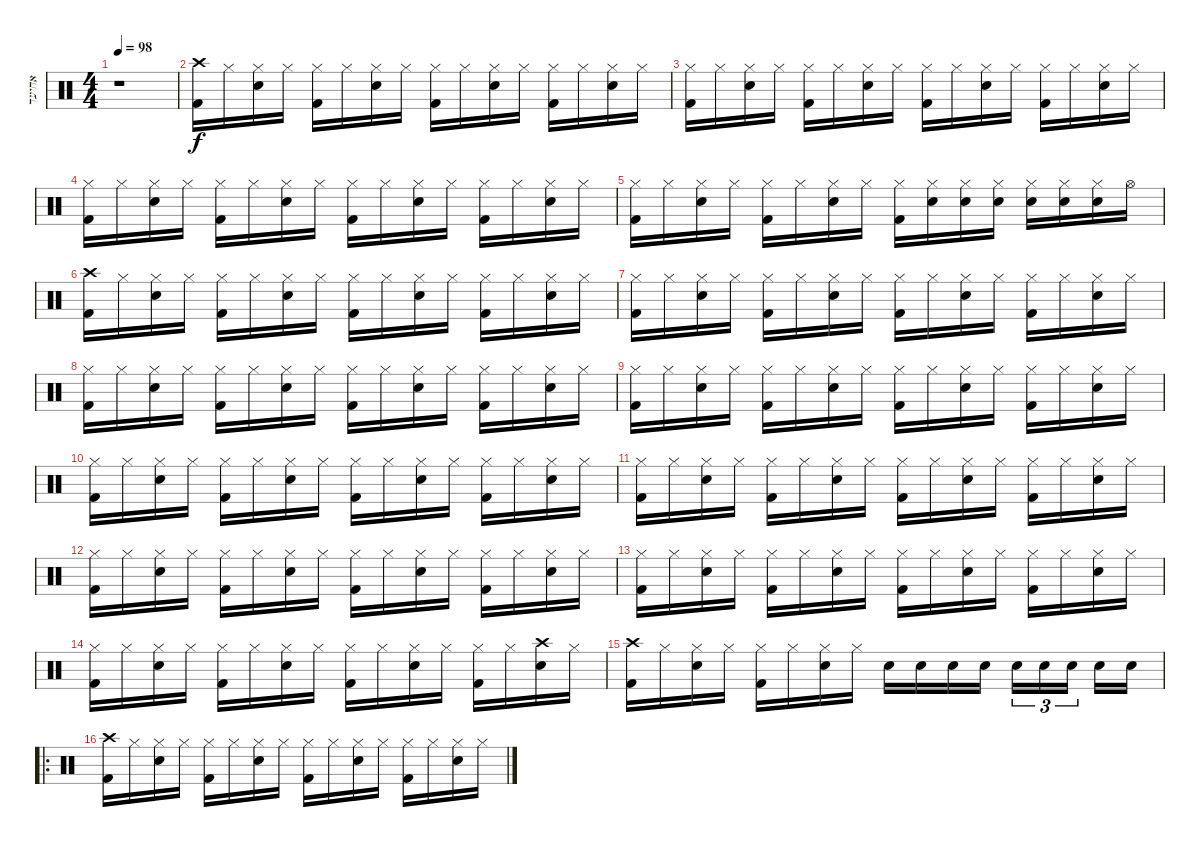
\track ("אחיעד" "אחיעד") {instrument percussion}
\staff {score}
\articulation defaults
\ts (4 4)
\tempo 98
\clef neutral
\ks c
r.1{dy f} |
("Crash high (hit)" "Kick (hit) 2").16 "Hi-Hat (closed)".16 ("Hi-Hat (closed)" "Snare (hit) 2").16 "Hi-Hat (closed)".16 ("Hi-Hat (closed)" "Kick (hit) 2").16 "Hi-Hat (closed)".16 ("Hi-Hat (closed)" "Snare (hit) 2").16 "Hi-Hat (closed)".16 ("Hi-Hat (closed)" "Kick (hit) 2").16 "Hi-Hat (closed)".16 ("Hi-Hat (closed)" "Snare (hit) 2").16 "Hi-Hat (closed)".16 ("Hi-Hat (closed)" "Kick (hit) 2").16 "Hi-Hat (closed)".16 ("Hi-Hat (closed)" "Snare (hit) 2").16 "Hi-Hat (closed)".16 |
("Hi-Hat (closed)" "Kick (hit) 2").16 "Hi-Hat (closed)".16 ("Hi-Hat (closed)" "Snare (hit) 2").16 "Hi-Hat (closed)".16 ("Hi-Hat (closed)" "Kick (hit) 2").16 "Hi-Hat (closed)".16 ("Hi-Hat (closed)" "Snare (hit) 2").16 "Hi-Hat (closed)".16 ("Hi-Hat (closed)" "Kick (hit) 2").16 "Hi-Hat (closed)".16 ("Hi-Hat (closed)" "Snare (hit) 2").16 "Hi-Hat (closed)".16 ("Hi-Hat (closed)" "Kick (hit) 2").16 "Hi-Hat (closed)".16 ("Hi-Hat (closed)" "Snare (hit) 2").16 "Hi-Hat (closed)".16 |
("Hi-Hat (closed)" "Kick (hit) 2").16 "Hi-Hat (closed)".16 ("Hi-Hat (closed)" "Snare (hit) 2").16 "Hi-Hat (closed)".16 ("Hi-Hat (closed)" "Kick (hit) 2").16 "Hi-Hat (closed)".16 ("Hi-Hat (closed)" "Snare (hit) 2").16 "Hi-Hat (closed)".16 ("Hi-Hat (closed)" "Kick (hit) 2").16 "Hi-Hat (closed)".16 ("Hi-Hat (closed)" "Snare (hit) 2").16 "Hi-Hat (closed)".16 ("Hi-Hat (closed)" "Kick (hit) 2").16 "Hi-Hat (closed)".16 ("Hi-Hat (closed)" "Snare (hit) 2").16 "Hi-Hat (closed)".16 |
("Hi-Hat (closed)" "Kick (hit) 2").16 "Hi-Hat (closed)".16 ("Hi-Hat (closed)" "Snare (hit) 2").16 "Hi-Hat (closed)".16 ("Hi-Hat (closed)" "Kick (hit) 2").16 "Hi-Hat (closed)".16 ("Hi-Hat (closed)" "Snare (hit) 2").16 "Hi-Hat (closed)".16 ("Hi-Hat (closed)" "Kick (hit) 2").16 ("Hi-Hat (closed)" "Snare (hit) 2").16 ("Hi-Hat (closed)" "Snare (hit) 2").16 ("Hi-Hat (closed)" "Snare (hit) 2").16 ("Hi-Hat (closed)" "Snare (hit) 2").16 ("Hi-Hat (closed)" "Snare (hit) 2").16 ("Hi-Hat (closed)" "Snare (hit) 2").16 "Hi-Hat (open)".16 |
("Crash high (hit)" "Kick (hit) 2").16 "Hi-Hat (closed)".16 ("Hi-Hat (closed)" "Snare (hit) 2").16 "Hi-Hat (closed)".16 ("Hi-Hat (closed)" "Kick (hit) 2").16 "Hi-Hat (closed)".16 ("Hi-Hat (closed)" "Snare (hit) 2").16 "Hi-Hat (closed)".16 ("Hi-Hat (closed)" "Kick (hit) 2").16 "Hi-Hat (closed)".16 ("Hi-Hat (closed)" "Snare (hit) 2").16 "Hi-Hat (closed)".16 ("Hi-Hat (closed)" "Kick (hit) 2").16 "Hi-Hat (closed)".16 ("Hi-Hat (closed)" "Snare (hit) 2").16 "Hi-Hat (closed)".16 |
("Hi-Hat (closed)" "Kick (hit) 2").16 "Hi-Hat (closed)".16 ("Hi-Hat (closed)" "Snare (hit) 2").16 "Hi-Hat (closed)".16 ("Hi-Hat (closed)" "Kick (hit) 2").16 "Hi-Hat (closed)".16 ("Hi-Hat (closed)" "Snare (hit) 2").16 "Hi-Hat (closed)".16 ("Hi-Hat (closed)" "Kick (hit) 2").16 "Hi-Hat (closed)".16 ("Hi-Hat (closed)" "Snare (hit) 2").16 "Hi-Hat (closed)".16 ("Hi-Hat (closed)" "Kick (hit) 2").16 "Hi-Hat (closed)".16 ("Hi-Hat (closed)" "Snare (hit) 2").16 "Hi-Hat (closed)".16 |
("Hi-Hat (closed)" "Kick (hit) 2").16 "Hi-Hat (closed)".16 ("Hi-Hat (closed)" "Snare (hit) 2").16 "Hi-Hat (closed)".16 ("Hi-Hat (closed)" "Kick (hit) 2").16 "Hi-Hat (closed)".16 ("Hi-Hat (closed)" "Snare (hit) 2").16 "Hi-Hat (closed)".16 ("Hi-Hat (closed)" "Kick (hit) 2").16 "Hi-Hat (closed)".16 ("Hi-Hat (closed)" "Snare (hit) 2").16 "Hi-Hat (closed)".16 ("Hi-Hat (closed)" "Kick (hit) 2").16 "Hi-Hat (closed)".16 ("Hi-Hat (closed)" "Snare (hit) 2").16 "Hi-Hat (closed)".16 |
("Hi-Hat (closed)" "Kick (hit) 2").16 "Hi-Hat (closed)".16 ("Hi-Hat (closed)" "Snare (hit) 2").16 "Hi-Hat (closed)".16 ("Hi-Hat (closed)" "Kick (hit) 2").16 "Hi-Hat (closed)".16 ("Hi-Hat (closed)" "Snare (hit) 2").16 "Hi-Hat (closed)".16 ("Hi-Hat (closed)" "Kick (hit) 2").16 "Hi-Hat (closed)".16 ("Hi-Hat (closed)" "Snare (hit) 2").16 "Hi-Hat (closed)".16 ("Hi-Hat (closed)" "Kick (hit) 2").16 "Hi-Hat (closed)".16 ("Hi-Hat (closed)" "Snare (hit) 2").16 "Hi-Hat (closed)".16 |
("Hi-Hat (closed)" "Kick (hit) 2").16 "Hi-Hat (closed)".16 ("Hi-Hat (closed)" "Snare (hit) 2").16 "Hi-Hat (closed)".16 ("Hi-Hat (closed)" "Kick (hit) 2").16 "Hi-Hat (closed)".16 ("Hi-Hat (closed)" "Snare (hit) 2").16 "Hi-Hat (closed)".16 ("Hi-Hat (closed)" "Kick (hit) 2").16 "Hi-Hat (closed)".16 ("Hi-Hat (closed)" "Snare (hit) 2").16 "Hi-Hat (closed)".16 ("Hi-Hat (closed)" "Kick (hit) 2").16 "Hi-Hat (closed)".16 ("Hi-Hat (closed)" "Snare (hit) 2").16 "Hi-Hat (closed)".16 |
("Hi-Hat (closed)" "Kick (hit) 2").16 "Hi-Hat (closed)".16 ("Hi-Hat (closed)" "Snare (hit) 2").16 "Hi-Hat (closed)".16 ("Hi-Hat (closed)" "Kick (hit) 2").16 "Hi-Hat (closed)".16 ("Hi-Hat (closed)" "Snare (hit) 2").16 "Hi-Hat (closed)".16 ("Hi-Hat (closed)" "Kick (hit) 2").16 "Hi-Hat (closed)".16 ("Hi-Hat (closed)" "Snare (hit) 2").16 "Hi-Hat (closed)".16 ("Hi-Hat (closed)" "Kick (hit) 2").16 "Hi-Hat (closed)".16 ("Hi-Hat (closed)" "Snare (hit) 2").16 "Hi-Hat (closed)".16 |
("Hi-Hat (closed)" "Kick (hit) 2").16 "Hi-Hat (closed)".16 ("Hi-Hat (closed)" "Snare (hit) 2").16 "Hi-Hat (closed)".16 ("Hi-Hat (closed)" "Kick (hit) 2").16 "Hi-Hat (closed)".16 ("Hi-Hat (closed)" "Snare (hit) 2").16 "Hi-Hat (closed)".16 ("Hi-Hat (closed)" "Kick (hit) 2").16 "Hi-Hat (closed)".16 ("Hi-Hat (closed)" "Snare (hit) 2").16 "Hi-Hat (closed)".16 ("Hi-Hat (closed)" "Kick (hit) 2").16 "Hi-Hat (closed)".16 ("Hi-Hat (closed)" "Snare (hit) 2").16 "Hi-Hat (closed)".16 |
("Hi-Hat (closed)" "Kick (hit) 2").16 "Hi-Hat (closed)".16 ("Hi-Hat (closed)" "Snare (hit) 2").16 "Hi-Hat (closed)".16 ("Hi-Hat (closed)" "Kick (hit) 2").16 "Hi-Hat (closed)".16 ("Hi-Hat (closed)" "Snare (hit) 2").16 "Hi-Hat (closed)".16 ("Hi-Hat (closed)" "Kick (hit) 2").16 "Hi-Hat (closed)".16 ("Hi-Hat (closed)" "Snare (hit) 2").16 "Hi-Hat (closed)".16 ("Hi-Hat (closed)" "Kick (hit) 2").16 "Hi-Hat (closed)".16 ("Hi-Hat (closed)" "Snare (hit) 2").16 "Hi-Hat (closed)".16 |
("Hi-Hat (closed)" "Kick (hit) 2").16 "Hi-Hat (closed)".16 ("Hi-Hat (closed)" "Snare (hit) 2").16 "Hi-Hat (closed)".16 ("Hi-Hat (closed)" "Kick (hit) 2").16 "Hi-Hat (closed)".16 ("Hi-Hat (closed)" "Snare (hit) 2").16 "Hi-Hat (closed)".16 ("Hi-Hat (closed)" "Kick (hit) 2").16 "Hi-Hat (closed)".16 ("Hi-Hat (closed)" "Snare (hit) 2").16 "Hi-Hat (closed)".16 ("Hi-Hat (closed)" "Kick (hit) 2").16 "Hi-Hat (closed)".16 ("Crash high (hit)" "Snare (hit) 2").16 "Hi-Hat (closed)".16 |
("Crash high (hit)" "Kick (hit) 2").16 "Hi-Hat (closed)".16 ("Hi-Hat (closed)" "Snare (hit) 2").16 "Hi-Hat (closed)".16 ("Hi-Hat (closed)" "Kick (hit) 2").16 "Hi-Hat (closed)".16 ("Hi-Hat (closed)" "Snare (hit) 2").16 "Hi-Hat (closed)".16 "Snare (hit) 2".16 "Snare (hit) 2".16 "Snare (hit) 2".16 "Snare (hit) 2".16 "Snare (hit) 2".16{tu (3 2)} "Snare (hit) 2".16{tu (3 2)} "Snare (hit) 2".16{tu (3 2)} "Snare (hit) 2".16 "Snare (hit) 2".16 |
\ro
("Crash high (hit)" "Kick (hit) 2").16 "Hi-Hat (closed)".16 ("Hi-Hat (closed)" "Snare (hit) 2").16 "Hi-Hat (closed)".16 ("Hi-Hat (closed)" "Kick (hit) 2").16 "Hi-Hat (closed)".16 ("Hi-Hat (closed)" "Snare (hit) 2").16 "Hi-Hat (closed)".16 ("Hi-Hat (closed)" "Kick (hit) 2").16 "Hi-Hat (closed)".16 ("Hi-Hat (closed)" "Snare (hit) 2").16 "Hi-Hat (closed)".16 ("Hi-Hat (closed)" "Kick (hit) 2").16 "Hi-Hat (closed)".16 ("Hi-Hat (closed)" "Snare (hit) 2").16 "Hi-Hat (closed)".16
